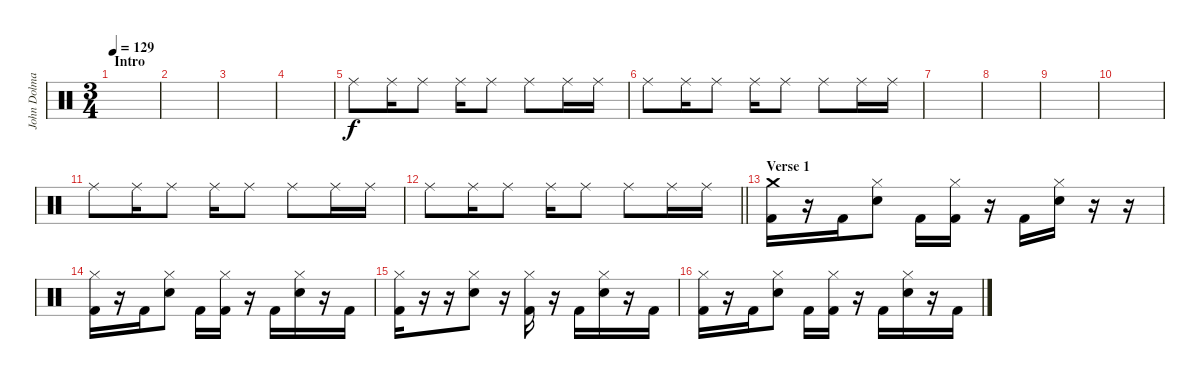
\track ("John Dolmayan" "John Dolma") {instrument percussion}
\staff {score}
\articulation defaults
\ts (3 4)
\section ("" "Intro")
\tempo 129
\clef neutral
\ks c
|
|
|
|
"Ride (middle)".8 "Ride (middle)".16 "Ride (middle)".8 "Ride (middle)".16 "Ride (middle)".8 "Ride (middle)".8 "Ride (middle)".16 "Ride (middle)".16 |
"Ride (middle)".8 "Ride (middle)".16 "Ride (middle)".8 "Ride (middle)".16 "Ride (middle)".8 "Ride (middle)".8 "Ride (middle)".16 "Ride (middle)".16 |
|
|
|
|
"Ride (middle)".8 "Ride (middle)".16 "Ride (middle)".8 "Ride (middle)".16 "Ride (middle)".8 "Ride (middle)".8 "Ride (middle)".16 "Ride (middle)".16 |
\barLineRight lightlight "Ride (middle)".8 "Ride (middle)".16 "Ride (middle)".8 "Ride (middle)".16 "Ride (middle)".8 "Ride (middle)".8 "Ride (middle)".16 "Ride (middle)".16
|
\section ("" "Verse 1")
("Crash medium (hit)" "Kick (hit) 2").16 r.16 "Kick (hit) 2".16 ("Hi-Hat (closed)" "Electric Snare (hit)").8 "Kick (hit) 2".16 ("Hi-Hat (closed)" "Kick (hit) 2").16 r.16 "Kick (hit) 2".16 ("Hi-Hat (closed)" "Electric Snare (hit)").16 r.16 r.16 |
("Hi-Hat (closed)" "Kick (hit) 2").16 r.16 "Kick (hit) 2".16 ("Hi-Hat (closed)" "Electric Snare (hit)").8 "Kick (hit) 2".16 ("Hi-Hat (closed)" "Kick (hit) 2").16 r.16 "Kick (hit) 2".16 ("Hi-Hat (closed)" "Electric Snare (hit)").16 r.16 "Kick (hit) 2".16 |
("Hi-Hat (closed)" "Kick (hit) 2").16 r.16 r.16 ("Hi-Hat (closed)" "Electric Snare (hit)").8 r.16 ("Hi-Hat (closed)" "Kick (hit) 2").16 r.16 "Kick (hit) 2".16 ("Hi-Hat (closed)" "Electric Snare (hit)").16 r.16 "Kick (hit) 2".16 |
("Hi-Hat (closed)" "Kick (hit) 2").16 r.16 "Kick (hit) 2".16 ("Hi-Hat (closed)" "Electric Snare (hit)").8 "Kick (hit) 2".16 ("Hi-Hat (closed)" "Kick (hit) 2").16 r.16 "Kick (hit) 2".16 ("Hi-Hat (closed)" "Electric Snare (hit)").16 r.16 "Kick (hit) 2".16
